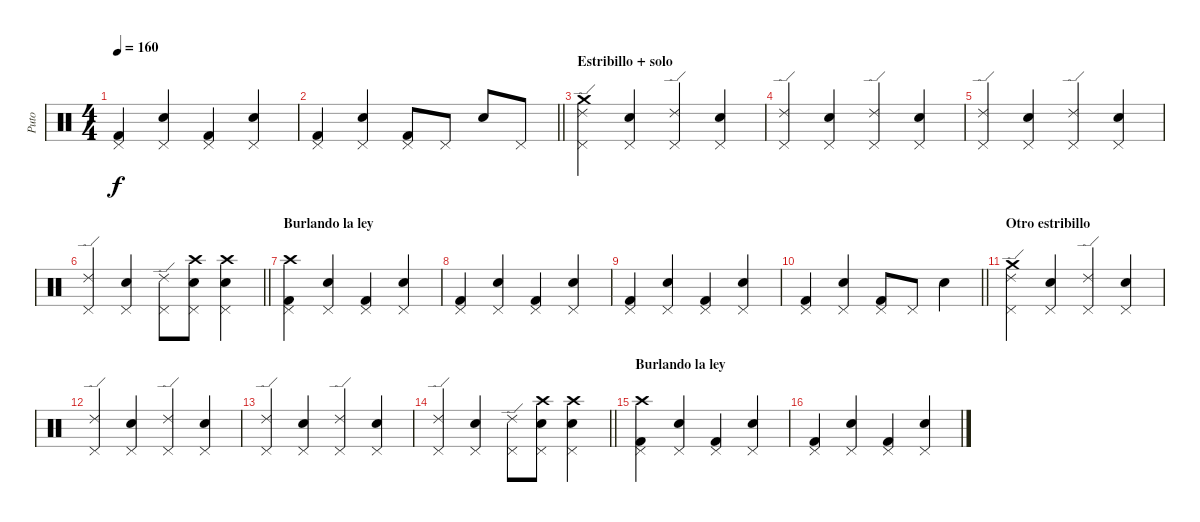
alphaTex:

\track ("Puto" "Puto") {instrument percussion}
\staff {score}
\articulation defaults
\ts (4 4)
\tempo 160
\clef neutral
\ks c
("Kick (hit) 2" "Pedal Hi-Hat (hit)").4{dy f} ("Snare (hit) 2" "Pedal Hi-Hat (hit)").4 ("Kick (hit) 2" "Pedal Hi-Hat (hit)").4 ("Snare (hit) 2" "Pedal Hi-Hat (hit)").4 |
\barLineRight lightlight
("Kick (hit) 2" "Pedal Hi-Hat (hit)").4 ("Snare (hit) 2" "Pedal Hi-Hat (hit)").4 ("Kick (hit) 2" "Pedal Hi-Hat (hit)").8 "Pedal Hi-Hat (hit)".8 "Snare (hit) 2".8 "Pedal Hi-Hat (hit)".8 |
\section ("" "Estribillo + solo")
("Ride (edge) 2" "Crash medium (hit)" "Pedal Hi-Hat (hit)").4 ("Snare (hit) 2" "Pedal Hi-Hat (hit)").4 ("Ride (edge) 2" "Pedal Hi-Hat (hit)").4 ("Snare (hit) 2" "Pedal Hi-Hat (hit)").4 |
("Ride (edge) 2" "Pedal Hi-Hat (hit)").4 ("Snare (hit) 2" "Pedal Hi-Hat (hit)").4 ("Ride (edge) 2" "Pedal Hi-Hat (hit)").4 ("Snare (hit) 2" "Pedal Hi-Hat (hit)").4 |
("Ride (edge) 2" "Pedal Hi-Hat (hit)").4 ("Snare (hit) 2" "Pedal Hi-Hat (hit)").4 ("Ride (edge) 2" "Pedal Hi-Hat (hit)").4 ("Snare (hit) 2" "Pedal Hi-Hat (hit)").4 |
\barLineRight lightlight
("Ride (edge) 2" "Pedal Hi-Hat (hit)").4 ("Snare (hit) 2" "Pedal Hi-Hat (hit)").4 ("Ride (edge) 2" "Pedal Hi-Hat (hit)").8 ("Crash high (hit)" "Snare (hit) 2" "Pedal Hi-Hat (hit)").8 ("Crash high (hit)" "Snare (hit) 2" "Pedal Hi-Hat (hit)").4 |
\section ("" "Burlando la ley")
("Kick (hit) 2" "Crash high (hit)" "Pedal Hi-Hat (hit)").4 ("Snare (hit) 2" "Pedal Hi-Hat (hit)").4 ("Kick (hit) 2" "Pedal Hi-Hat (hit)").4 ("Snare (hit) 2" "Pedal Hi-Hat (hit)").4 |
("Kick (hit) 2" "Pedal Hi-Hat (hit)").4 ("Snare (hit) 2" "Pedal Hi-Hat (hit)").4 ("Kick (hit) 2" "Pedal Hi-Hat (hit)").4 ("Snare (hit) 2" "Pedal Hi-Hat (hit)").4 |
("Kick (hit) 2" "Pedal Hi-Hat (hit)").4 ("Snare (hit) 2" "Pedal Hi-Hat (hit)").4 ("Kick (hit) 2" "Pedal Hi-Hat (hit)").4 ("Snare (hit) 2" "Pedal Hi-Hat (hit)").4 |
\barLineRight lightlight
("Kick (hit) 2" "Pedal Hi-Hat (hit)").4 ("Snare (hit) 2" "Pedal Hi-Hat (hit)").4 ("Kick (hit) 2" "Pedal Hi-Hat (hit)").8 "Pedal Hi-Hat (hit)".8 "Snare (hit) 2".4 |
\section ("" "Otro estribillo")
("Ride (edge) 2" "Crash medium (hit)" "Pedal Hi-Hat (hit)").4 ("Snare (hit) 2" "Pedal Hi-Hat (hit)").4 ("Ride (edge) 2" "Pedal Hi-Hat (hit)").4 ("Snare (hit) 2" "Pedal Hi-Hat (hit)").4 |
("Ride (edge) 2" "Pedal Hi-Hat (hit)").4 ("Snare (hit) 2" "Pedal Hi-Hat (hit)").4 ("Ride (edge) 2" "Pedal Hi-Hat (hit)").4 ("Snare (hit) 2" "Pedal Hi-Hat (hit)").4 |
("Ride (edge) 2" "Pedal Hi-Hat (hit)").4 ("Snare (hit) 2" "Pedal Hi-Hat (hit)").4 ("Ride (edge) 2" "Pedal Hi-Hat (hit)").4 ("Snare (hit) 2" "Pedal Hi-Hat (hit)").4 |
\barLineRight lightlight
("Ride (edge) 2" "Pedal Hi-Hat (hit)").4 ("Snare (hit) 2" "Pedal Hi-Hat (hit)").4 ("Ride (edge) 2" "Pedal Hi-Hat (hit)").8 ("Crash high (hit)" "Snare (hit) 2" "Pedal Hi-Hat (hit)").8 ("Crash high (hit)" "Snare (hit) 2" "Pedal Hi-Hat (hit)").4 |
\section ("" "Burlando la ley")
("Kick (hit) 2" "Crash high (hit)" "Pedal Hi-Hat (hit)").4 ("Snare (hit) 2" "Pedal Hi-Hat (hit)").4 ("Kick (hit) 2" "Pedal Hi-Hat (hit)").4 ("Snare (hit) 2" "Pedal Hi-Hat (hit)").4 |
("Kick (hit) 2" "Pedal Hi-Hat (hit)").4 ("Snare (hit) 2" "Pedal Hi-Hat (hit)").4 ("Kick (hit) 2" "Pedal Hi-Hat (hit)").4 ("Snare (hit) 2" "Pedal Hi-Hat (hit)").4
